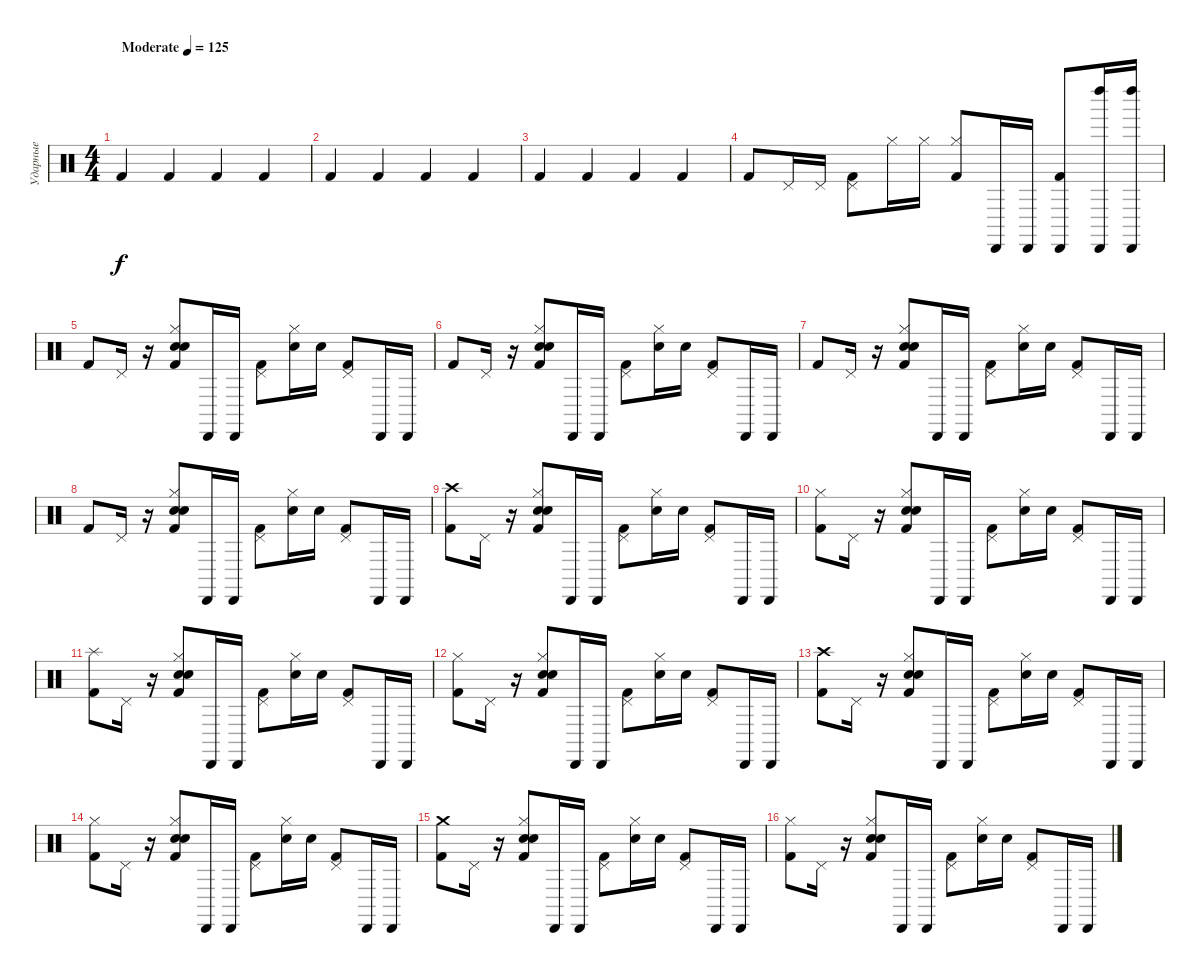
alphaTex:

\track ("Ударные" "Ударные") {instrument percussion}
\staff {score}
\articulation defaults
\ts (4 4)
\tempo (125 "Moderate")
\clef neutral
\ks c "Kick (hit) 2".4{dy f} "Kick (hit) 2".4 "Kick (hit) 2".4 "Kick (hit) 2".4
|
"Kick (hit) 2".4 "Kick (hit) 2".4 "Kick (hit) 2".4 "Kick (hit) 2".4 |
"Kick (hit) 2".4 "Kick (hit) 2".4 "Kick (hit) 2".4 "Kick (hit) 2".4 |
"Kick (hit) 2".8 "Pedal Hi-Hat (hit)".16 "Pedal Hi-Hat (hit)".16 ("Pedal Hi-Hat (hit)" "Kick (hit) 2").8 "Hi-Hat (closed)".16 "Hi-Hat (closed)".16 ("Hi-Hat (closed)" "Kick (hit) 2").8 "Cabasa (hit)".16 "Cabasa (hit)".16 ("Cabasa (hit)" "Kick (hit) 2").8 ("Cabasa (hit)" "Left Maraca (hit)").16 ("Cabasa (hit)" "Left Maraca (hit)").16 |
"Kick (hit) 2".8 "Pedal Hi-Hat (hit)".16 r.16 ("Hi-Hat (closed)" "Electric Snare (hit)" "Snare (hit) 2" "Kick (hit) 2").8 "Cabasa (hit)".16 "Cabasa (hit)".16 ("Pedal Hi-Hat (hit)" "Kick (hit) 2").8 ("Hi-Hat (closed)" "Snare (hit) 2").16 "Snare (hit) 2".16 ("Pedal Hi-Hat (hit)" "Kick (hit) 2").8 "Cabasa (hit)".16 "Cabasa (hit)".16 |
"Kick (hit) 2".8 "Pedal Hi-Hat (hit)".16 r.16 ("Hi-Hat (closed)" "Electric Snare (hit)" "Snare (hit) 2" "Kick (hit) 2").8 "Cabasa (hit)".16 "Cabasa (hit)".16 ("Pedal Hi-Hat (hit)" "Kick (hit) 2").8 ("Hi-Hat (closed)" "Snare (hit) 2").16 "Snare (hit) 2".16 ("Pedal Hi-Hat (hit)" "Kick (hit) 2").8 "Cabasa (hit)".16 "Cabasa (hit)".16 |
"Kick (hit) 2".8 "Pedal Hi-Hat (hit)".16 r.16 ("Hi-Hat (closed)" "Electric Snare (hit)" "Snare (hit) 2" "Kick (hit) 2").8 "Cabasa (hit)".16 "Cabasa (hit)".16 ("Pedal Hi-Hat (hit)" "Kick (hit) 2").8 ("Hi-Hat (closed)" "Snare (hit) 2").16 "Snare (hit) 2".16 ("Pedal Hi-Hat (hit)" "Kick (hit) 2").8 "Cabasa (hit)".16 "Cabasa (hit)".16 |
"Kick (hit) 2".8 "Pedal Hi-Hat (hit)".16 r.16 ("Hi-Hat (closed)" "Electric Snare (hit)" "Snare (hit) 2" "Kick (hit) 2").8 "Cabasa (hit)".16 "Cabasa (hit)".16 ("Pedal Hi-Hat (hit)" "Kick (hit) 2").8 ("Hi-Hat (closed)" "Snare (hit) 2").16 "Snare (hit) 2".16 ("Pedal Hi-Hat (hit)" "Kick (hit) 2").8 "Cabasa (hit)".16 "Cabasa (hit)".16 |
("Crash high (hit)" "Kick (hit) 2").8 "Pedal Hi-Hat (hit)".16 r.16 ("Hi-Hat (closed)" "Electric Snare (hit)" "Snare (hit) 2" "Kick (hit) 2").8 "Cabasa (hit)".16 "Cabasa (hit)".16 ("Pedal Hi-Hat (hit)" "Kick (hit) 2").8 ("Hi-Hat (closed)" "Snare (hit) 2").16 "Snare (hit) 2".16 ("Pedal Hi-Hat (hit)" "Kick (hit) 2").8 "Cabasa (hit)".16 "Cabasa (hit)".16 |
("Hi-Hat (closed)" "Kick (hit) 2").8 "Pedal Hi-Hat (hit)".16 r.16 ("Hi-Hat (closed)" "Electric Snare (hit)" "Snare (hit) 2" "Kick (hit) 2").8 "Cabasa (hit)".16 "Cabasa (hit)".16 ("Pedal Hi-Hat (hit)" "Kick (hit) 2").8 ("Hi-Hat (closed)" "Snare (hit) 2").16 "Snare (hit) 2".16 ("Pedal Hi-Hat (hit)" "Kick (hit) 2").8 "Cabasa (hit)".16 "Cabasa (hit)".16 |
("Splash (hit)" "Kick (hit) 2").8 "Pedal Hi-Hat (hit)".16 r.16 ("Hi-Hat (closed)" "Electric Snare (hit)" "Snare (hit) 2" "Kick (hit) 2").8 "Cabasa (hit)".16 "Cabasa (hit)".16 ("Pedal Hi-Hat (hit)" "Kick (hit) 2").8 ("Hi-Hat (closed)" "Snare (hit) 2").16 "Snare (hit) 2".16 ("Pedal Hi-Hat (hit)" "Kick (hit) 2").8 "Cabasa (hit)".16 "Cabasa (hit)".16 |
("Hi-Hat (closed)" "Kick (hit) 2").8 "Pedal Hi-Hat (hit)".16 r.16 ("Hi-Hat (closed)" "Electric Snare (hit)" "Snare (hit) 2" "Kick (hit) 2").8 "Cabasa (hit)".16 "Cabasa (hit)".16 ("Pedal Hi-Hat (hit)" "Kick (hit) 2").8 ("Hi-Hat (closed)" "Snare (hit) 2").16 "Snare (hit) 2".16 ("Pedal Hi-Hat (hit)" "Kick (hit) 2").8 "Cabasa (hit)".16 "Cabasa (hit)".16 |
("Crash high (hit)" "Kick (hit) 2").8 "Pedal Hi-Hat (hit)".16 r.16 ("Hi-Hat (closed)" "Electric Snare (hit)" "Snare (hit) 2" "Kick (hit) 2").8 "Cabasa (hit)".16 "Cabasa (hit)".16 ("Pedal Hi-Hat (hit)" "Kick (hit) 2").8 ("Hi-Hat (closed)" "Snare (hit) 2").16 "Snare (hit) 2".16 ("Pedal Hi-Hat (hit)" "Kick (hit) 2").8 "Cabasa (hit)".16 "Cabasa (hit)".16 |
("Hi-Hat (closed)" "Kick (hit) 2").8 "Pedal Hi-Hat (hit)".16 r.16 ("Hi-Hat (closed)" "Electric Snare (hit)" "Snare (hit) 2" "Kick (hit) 2").8 "Cabasa (hit)".16 "Cabasa (hit)".16 ("Pedal Hi-Hat (hit)" "Kick (hit) 2").8 ("Hi-Hat (closed)" "Snare (hit) 2").16 "Snare (hit) 2".16 ("Pedal Hi-Hat (hit)" "Kick (hit) 2").8 "Cabasa (hit)".16 "Cabasa (hit)".16 |
("Crash medium (hit)" "Kick (hit) 2").8 "Pedal Hi-Hat (hit)".16 r.16 ("Hi-Hat (closed)" "Electric Snare (hit)" "Snare (hit) 2" "Kick (hit) 2").8 "Cabasa (hit)".16 "Cabasa (hit)".16 ("Pedal Hi-Hat (hit)" "Kick (hit) 2").8 ("Hi-Hat (closed)" "Snare (hit) 2").16 "Snare (hit) 2".16 ("Pedal Hi-Hat (hit)" "Kick (hit) 2").8 "Cabasa (hit)".16 "Cabasa (hit)".16 |
("Hi-Hat (closed)" "Kick (hit) 2").8 "Pedal Hi-Hat (hit)".16 r.16 ("Hi-Hat (closed)" "Electric Snare (hit)" "Snare (hit) 2" "Kick (hit) 2").8 "Cabasa (hit)".16 "Cabasa (hit)".16 ("Pedal Hi-Hat (hit)" "Kick (hit) 2").8 ("Hi-Hat (closed)" "Snare (hit) 2").16 "Snare (hit) 2".16 ("Pedal Hi-Hat (hit)" "Kick (hit) 2").8 "Cabasa (hit)".16 "Cabasa (hit)".16
